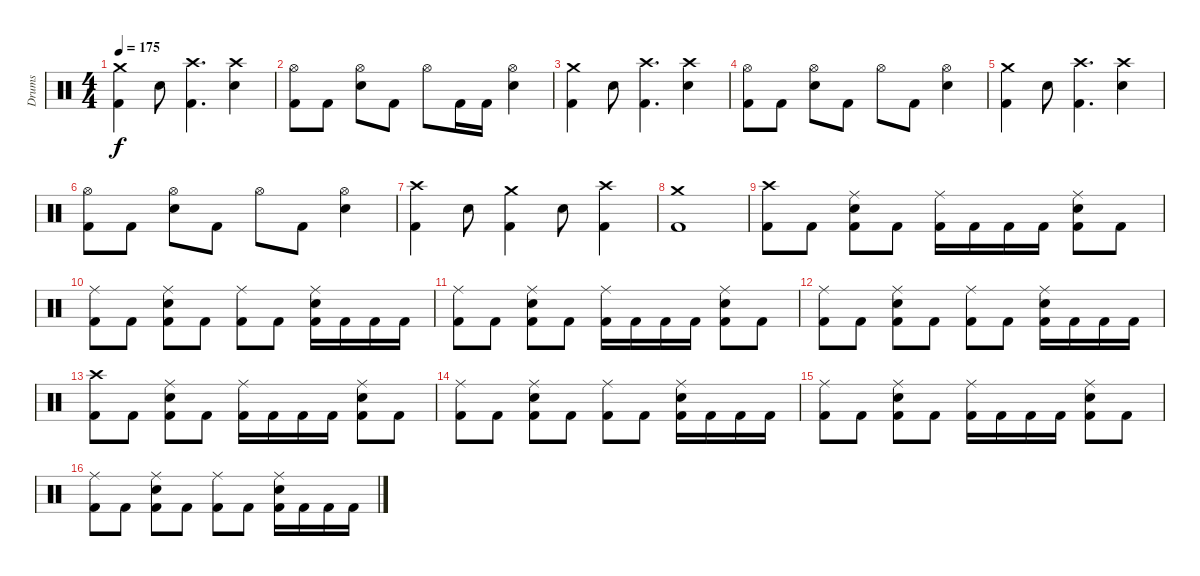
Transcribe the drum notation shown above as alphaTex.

\track ("Drums" "Drums") {instrument percussion}
\staff {score}
\articulation defaults
\ts (4 4)
\tempo 175
\clef neutral
\ks c
("Crash medium (hit)" "Kick (hit) 2").4{dy f} "Electric Snare (hit)".8 ("Crash high (hit)" "Kick (hit) 2").4{d} ("Crash high (hit)" "Electric Snare (hit)").4 |
("Hi-Hat (open)" "Kick (hit) 2").8 "Kick (hit) 2".8 ("Hi-Hat (open)" "Electric Snare (hit)").8 "Kick (hit) 2".8 "Hi-Hat (open)".8 "Kick (hit) 2".16 "Kick (hit) 2".16 ("Hi-Hat (open)" "Electric Snare (hit)").4 |
("Crash medium (hit)" "Kick (hit) 2").4 "Electric Snare (hit)".8 ("Crash high (hit)" "Kick (hit) 2").4{d} ("Crash high (hit)" "Electric Snare (hit)").4 |
("Hi-Hat (open)" "Kick (hit) 2").8 "Kick (hit) 2".8 ("Hi-Hat (open)" "Electric Snare (hit)").8 "Kick (hit) 2".8 "Hi-Hat (open)".8 "Kick (hit) 2".8 ("Hi-Hat (open)" "Electric Snare (hit)").4 |
("Crash medium (hit)" "Kick (hit) 2").4 "Electric Snare (hit)".8 ("Crash high (hit)" "Kick (hit) 2").4{d} ("Crash high (hit)" "Electric Snare (hit)").4 |
("Hi-Hat (open)" "Kick (hit) 2").8 "Kick (hit) 2".8 ("Hi-Hat (open)" "Electric Snare (hit)").8 "Kick (hit) 2".8 "Hi-Hat (open)".8 "Kick (hit) 2".8 ("Hi-Hat (open)" "Electric Snare (hit)").4 |
("Crash high (hit)" "Kick (hit) 2").4 "Electric Snare (hit)".8 ("Crash medium (hit)" "Kick (hit) 2").4 "Electric Snare (hit)".8 ("Crash high (hit)" "Kick (hit) 2").4 |
("Crash medium (hit)" "Kick (hit) 2").1 |
("Crash high (hit)" "Kick (hit) 2").8 "Kick (hit) 2".8 ("Ride (middle)" "Electric Snare (hit)" "Kick (hit) 2").8 "Kick (hit) 2".8 ("Ride (middle)" "Kick (hit) 2").16 "Kick (hit) 2".16 "Kick (hit) 2".16 "Kick (hit) 2".16 ("Ride (middle)" "Electric Snare (hit)" "Kick (hit) 2").8 "Kick (hit) 2".8 |
("Ride (middle)" "Kick (hit) 2").8 "Kick (hit) 2".8 ("Ride (middle)" "Electric Snare (hit)" "Kick (hit) 2").8 "Kick (hit) 2".8 ("Ride (middle)" "Kick (hit) 2").8 "Kick (hit) 2".8 ("Ride (middle)" "Electric Snare (hit)" "Kick (hit) 2").16 "Kick (hit) 2".16 "Kick (hit) 2".16 "Kick (hit) 2".16 |
("Ride (middle)" "Kick (hit) 2").8 "Kick (hit) 2".8 ("Ride (middle)" "Electric Snare (hit)" "Kick (hit) 2").8 "Kick (hit) 2".8 ("Ride (middle)" "Kick (hit) 2").16 "Kick (hit) 2".16 "Kick (hit) 2".16 "Kick (hit) 2".16 ("Ride (middle)" "Electric Snare (hit)" "Kick (hit) 2").8 "Kick (hit) 2".8 |
("Ride (middle)" "Kick (hit) 2").8 "Kick (hit) 2".8 ("Ride (middle)" "Electric Snare (hit)" "Kick (hit) 2").8 "Kick (hit) 2".8 ("Ride (middle)" "Kick (hit) 2").8 "Kick (hit) 2".8 ("Ride (middle)" "Electric Snare (hit)" "Kick (hit) 2").16 "Kick (hit) 2".16 "Kick (hit) 2".16 "Kick (hit) 2".16 |
("Crash high (hit)" "Kick (hit) 2").8 "Kick (hit) 2".8 ("Ride (middle)" "Electric Snare (hit)" "Kick (hit) 2").8 "Kick (hit) 2".8 ("Ride (middle)" "Kick (hit) 2").16 "Kick (hit) 2".16 "Kick (hit) 2".16 "Kick (hit) 2".16 ("Ride (middle)" "Electric Snare (hit)" "Kick (hit) 2").8 "Kick (hit) 2".8 |
("Ride (middle)" "Kick (hit) 2").8 "Kick (hit) 2".8 ("Ride (middle)" "Electric Snare (hit)" "Kick (hit) 2").8 "Kick (hit) 2".8 ("Ride (middle)" "Kick (hit) 2").8 "Kick (hit) 2".8 ("Ride (middle)" "Electric Snare (hit)" "Kick (hit) 2").16 "Kick (hit) 2".16 "Kick (hit) 2".16 "Kick (hit) 2".16 |
("Ride (middle)" "Kick (hit) 2").8 "Kick (hit) 2".8 ("Ride (middle)" "Electric Snare (hit)" "Kick (hit) 2").8 "Kick (hit) 2".8 ("Ride (middle)" "Kick (hit) 2").16 "Kick (hit) 2".16 "Kick (hit) 2".16 "Kick (hit) 2".16 ("Ride (middle)" "Electric Snare (hit)" "Kick (hit) 2").8 "Kick (hit) 2".8 |
("Ride (middle)" "Kick (hit) 2").8 "Kick (hit) 2".8 ("Ride (middle)" "Electric Snare (hit)" "Kick (hit) 2").8 "Kick (hit) 2".8 ("Ride (middle)" "Kick (hit) 2").8 "Kick (hit) 2".8 ("Ride (middle)" "Electric Snare (hit)" "Kick (hit) 2").16 "Kick (hit) 2".16 "Kick (hit) 2".16 "Kick (hit) 2".16
